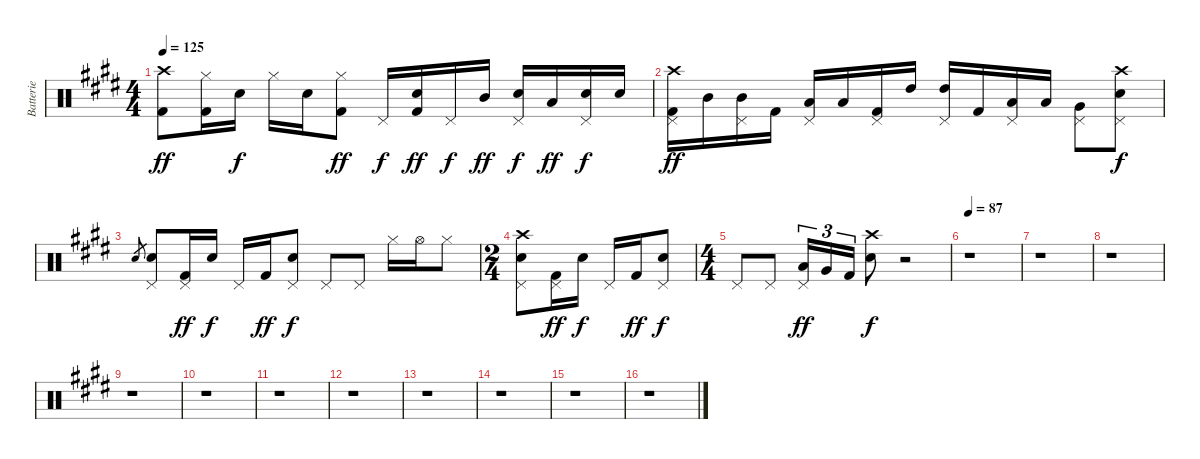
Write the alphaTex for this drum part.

\track ("Batterie" "Batterie") {instrument percussion}
\staff {score}
\articulation defaults
\ts (4 4)
\tempo 125
\clef neutral
\ks e
("Crash high (hit)" "Kick (hit) 2").8{dy ff} ("Hi-Hat (closed)" "Kick (hit) 2").16 "Snare (hit) 2".16{dy f} "Hi-Hat (closed)".16 "Snare (hit) 2".16 ("Hi-Hat (closed)" "Kick (hit) 2").8{dy ff} "Pedal Hi-Hat (hit)".16{dy f} ("Snare (hit) 2" "Kick (hit) 2").16{dy ff} "Pedal Hi-Hat (hit)".16{dy f} "Mid Tom (hit)".16{dy ff} ("Pedal Hi-Hat (hit)" "Snare (hit) 2").16{dy f} "Low Tom (hit)".16{dy ff} ("Pedal Hi-Hat (hit)" "Snare (hit) 2").16{dy f} "Snare (hit) 2".16 |
("Crash high (hit)" "Pedal Hi-Hat (hit)" "Kick (hit) 2").16{dy ff} "Mid Tom (hit)".16 ("Pedal Hi-Hat (hit)" "Mid Tom (hit)").16 "Kick (hit) 2".16 ("Pedal Hi-Hat (hit)" "Low Tom (hit)").16 "Low Tom (hit)".16 ("Pedal Hi-Hat (hit)" "Kick (hit) 2").16 "High Tom (hit)".16 ("Pedal Hi-Hat (hit)" "High Tom (hit)").16 "Kick (hit) 2".16 ("Pedal Hi-Hat (hit)" "Low Tom (hit)").16 "Low Tom (hit)".16 ("Pedal Hi-Hat (hit)" "Very Low Tom (hit)").8 ("Crash high (hit)" "Pedal Hi-Hat (hit)" "Snare (hit) 2").8{dy f} |
"Snare (hit) 2".8{gr} ("Pedal Hi-Hat (hit)" "Snare (hit) 2").8 ("Pedal Hi-Hat (hit)" "Kick (hit) 2").16{dy ff} "Snare (hit) 2".16{dy f} "Pedal Hi-Hat (hit)".16 "Kick (hit) 2".16{dy ff} ("Pedal Hi-Hat (hit)" "Snare (hit) 2").8{dy f} "Pedal Hi-Hat (hit)".8 "Pedal Hi-Hat (hit)".8 "Hi-Hat (closed)".16 "Hi-Hat (open)".16 "Hi-Hat (closed)".8 |
\ts (2 4)
("Crash high (hit)" "Pedal Hi-Hat (hit)" "Snare (hit) 2").8 ("Pedal Hi-Hat (hit)" "Kick (hit) 2").16{dy ff} "Snare (hit) 2".16{dy f} "Pedal Hi-Hat (hit)".16 "Kick (hit) 2".16{dy ff} ("Pedal Hi-Hat (hit)" "Snare (hit) 2").8{dy f} |
\ts (4 4)
"Pedal Hi-Hat (hit)".8 "Pedal Hi-Hat (hit)".8 ("Pedal Hi-Hat (hit)" "Low Tom (hit)").16{tu (3 2) dy ff} "Very Low Tom (hit)".16{tu (3 2)} "Kick (hit) 2".16{tu (3 2)} ("Crash high (hit)" "Snare (hit) 2").8{dy f} r.2 |
\tempo 87
r.1 |
r.1 |
r.1 |
r.1 |
r.1 |
r.1 |
r.1 |
r.1 |
r.1 |
r.1 |
r.1
